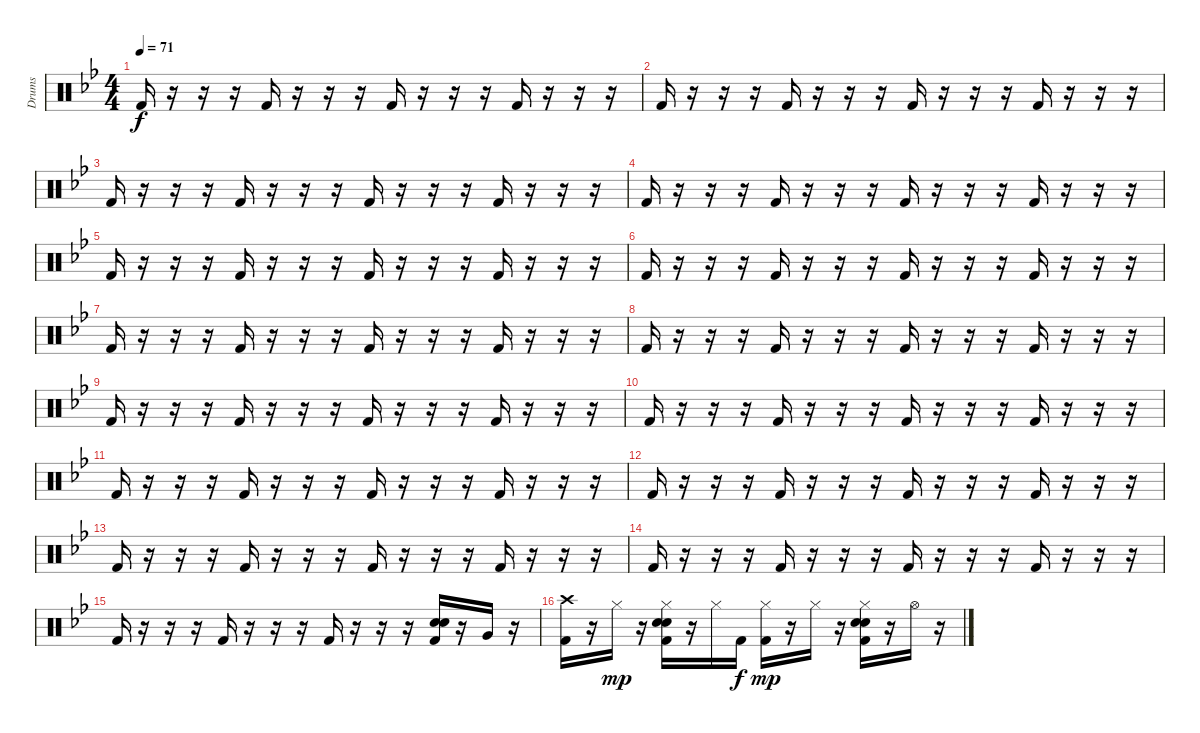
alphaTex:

\track ("Drums" "Drums") {instrument percussion}
\staff {score}
\articulation defaults
\ts (4 4)
\tempo 71
\clef neutral
\ks gminor "Kick (hit) 2".16{dy f}
r.16 r.16 r.16 "Kick (hit) 2".16 r.16 r.16 r.16 "Kick (hit) 2".16 r.16 r.16 r.16 "Kick (hit) 2".16 r.16 r.16 r.16 |
"Kick (hit) 2".16 r.16 r.16 r.16 "Kick (hit) 2".16 r.16 r.16 r.16 "Kick (hit) 2".16 r.16 r.16 r.16 "Kick (hit) 2".16 r.16 r.16 r.16 |
"Kick (hit) 2".16 r.16 r.16 r.16 "Kick (hit) 2".16 r.16 r.16 r.16 "Kick (hit) 2".16 r.16 r.16 r.16 "Kick (hit) 2".16 r.16 r.16 r.16 |
"Kick (hit) 2".16 r.16 r.16 r.16 "Kick (hit) 2".16 r.16 r.16 r.16 "Kick (hit) 2".16 r.16 r.16 r.16 "Kick (hit) 2".16 r.16 r.16 r.16 |
"Kick (hit) 2".16 r.16 r.16 r.16 "Kick (hit) 2".16 r.16 r.16 r.16 "Kick (hit) 2".16 r.16 r.16 r.16 "Kick (hit) 2".16 r.16 r.16 r.16 |
"Kick (hit) 2".16 r.16 r.16 r.16 "Kick (hit) 2".16 r.16 r.16 r.16 "Kick (hit) 2".16 r.16 r.16 r.16 "Kick (hit) 2".16 r.16 r.16 r.16 |
"Kick (hit) 2".16 r.16 r.16 r.16 "Kick (hit) 2".16 r.16 r.16 r.16 "Kick (hit) 2".16 r.16 r.16 r.16 "Kick (hit) 2".16 r.16 r.16 r.16 |
"Kick (hit) 2".16 r.16 r.16 r.16 "Kick (hit) 2".16 r.16 r.16 r.16 "Kick (hit) 2".16 r.16 r.16 r.16 "Kick (hit) 2".16 r.16 r.16 r.16 |
"Kick (hit) 2".16 r.16 r.16 r.16 "Kick (hit) 2".16 r.16 r.16 r.16 "Kick (hit) 2".16 r.16 r.16 r.16 "Kick (hit) 2".16 r.16 r.16 r.16 |
"Kick (hit) 2".16 r.16 r.16 r.16 "Kick (hit) 2".16 r.16 r.16 r.16 "Kick (hit) 2".16 r.16 r.16 r.16 "Kick (hit) 2".16 r.16 r.16 r.16 |
"Kick (hit) 2".16 r.16 r.16 r.16 "Kick (hit) 2".16 r.16 r.16 r.16 "Kick (hit) 2".16 r.16 r.16 r.16 "Kick (hit) 2".16 r.16 r.16 r.16 |
"Kick (hit) 2".16 r.16 r.16 r.16 "Kick (hit) 2".16 r.16 r.16 r.16 "Kick (hit) 2".16 r.16 r.16 r.16 "Kick (hit) 2".16 r.16 r.16 r.16 |
"Kick (hit) 2".16 r.16 r.16 r.16 "Kick (hit) 2".16 r.16 r.16 r.16 "Kick (hit) 2".16 r.16 r.16 r.16 "Kick (hit) 2".16 r.16 r.16 r.16 |
"Kick (hit) 2".16 r.16 r.16 r.16 "Kick (hit) 2".16 r.16 r.16 r.16 "Kick (hit) 2".16 r.16 r.16 r.16 "Kick (hit) 2".16 r.16 r.16 r.16 |
"Kick (hit) 2".16 r.16 r.16 r.16 "Kick (hit) 2".16 r.16 r.16 r.16 "Kick (hit) 2".16 r.16 r.16 r.16 ("Electric Snare (hit)" "Snare (hit) 2" "Kick (hit) 2").16 r.16 "Very Low Tom (hit)".16 r.16 |
("Crash high (hit)" "Kick (hit) 2").16 r.16 "Hi-Hat (closed)".16{dy mp} r.16 ("Hi-Hat (closed)" "Electric Snare (hit)" "Snare (hit) 2" "Kick (hit) 2").16 r.16 "Hi-Hat (closed)".16 "Kick (hit) 2".16{dy f} ("Hi-Hat (closed)" "Kick (hit) 2").16{dy mp} r.16 "Hi-Hat (closed)".16 r.16 ("Hi-Hat (closed)" "Electric Snare (hit)" "Snare (hit) 2" "Kick (hit) 2").16 r.16 "Hi-Hat (open)".16 r.16
